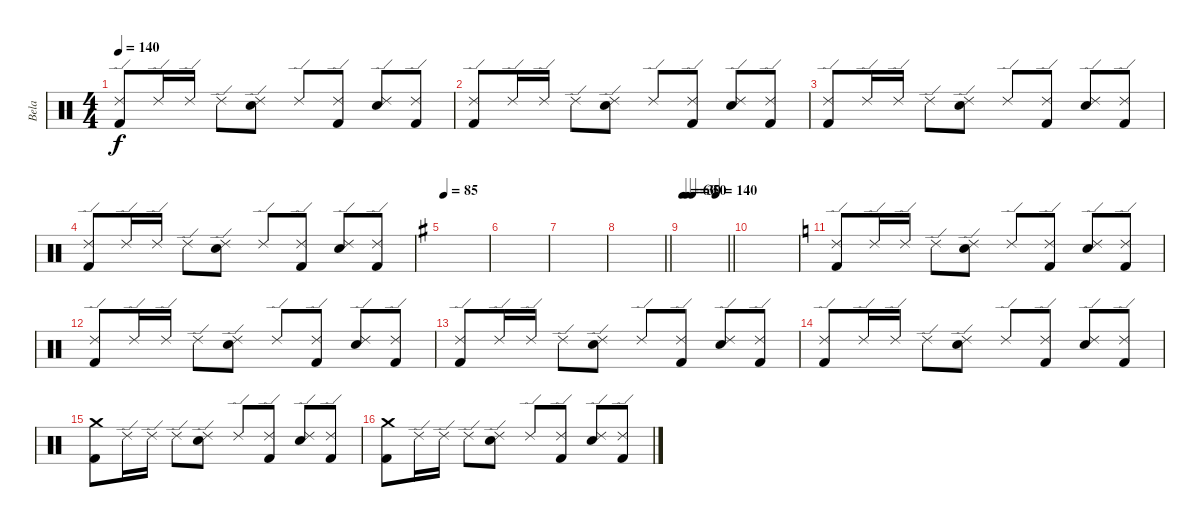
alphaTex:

\track ("Bela" "Bela") {instrument percussion}
\staff {score}
\articulation defaults
\ts (4 4)
\tempo 140
\clef neutral
\ks c
("Ride (edge) 2" "Kick (hit) 2").8{dy f} "Ride (edge) 2".16 "Ride (edge) 2".16 "Ride (edge) 2".8 ("Ride (edge) 2" "Snare (hit) 2").8 "Ride (edge) 2".8 ("Ride (edge) 2" "Kick (hit) 2").8 ("Ride (edge) 2" "Snare (hit) 2").8 ("Ride (edge) 2" "Kick (hit) 2").8 |
("Ride (edge) 2" "Kick (hit) 2").8 "Ride (edge) 2".16 "Ride (edge) 2".16 "Ride (edge) 2".8 ("Ride (edge) 2" "Snare (hit) 2").8 "Ride (edge) 2".8 ("Ride (edge) 2" "Kick (hit) 2").8 ("Ride (edge) 2" "Snare (hit) 2").8 ("Ride (edge) 2" "Kick (hit) 2").8 |
("Ride (edge) 2" "Kick (hit) 2").8 "Ride (edge) 2".16 "Ride (edge) 2".16 "Ride (edge) 2".8 ("Ride (edge) 2" "Snare (hit) 2").8 "Ride (edge) 2".8 ("Ride (edge) 2" "Kick (hit) 2").8 ("Ride (edge) 2" "Snare (hit) 2").8 ("Ride (edge) 2" "Kick (hit) 2").8 |
("Ride (edge) 2" "Kick (hit) 2").8 "Ride (edge) 2".16 "Ride (edge) 2".16 "Ride (edge) 2".8 ("Ride (edge) 2" "Snare (hit) 2").8 "Ride (edge) 2".8 ("Ride (edge) 2" "Kick (hit) 2").8 ("Ride (edge) 2" "Snare (hit) 2").8 ("Ride (edge) 2" "Kick (hit) 2").8 |
\tempo 70
\tempo 85
\ks g
|
|
|
\barLineRight lightlight
|
\tempo 60
\tempo (30 0.09375)
\tempo (50 0.21875)
\tempo (140 0.75)
\barLineRight lightlight
|
|
\ks c
("Ride (edge) 2" "Kick (hit) 2").8 "Ride (edge) 2".16 "Ride (edge) 2".16 "Ride (edge) 2".8 ("Ride (edge) 2" "Snare (hit) 2").8 "Ride (edge) 2".8 ("Ride (edge) 2" "Kick (hit) 2").8 ("Ride (edge) 2" "Snare (hit) 2").8 ("Ride (edge) 2" "Kick (hit) 2").8 |
("Ride (edge) 2" "Kick (hit) 2").8 "Ride (edge) 2".16 "Ride (edge) 2".16 "Ride (edge) 2".8 ("Ride (edge) 2" "Snare (hit) 2").8 "Ride (edge) 2".8 ("Ride (edge) 2" "Kick (hit) 2").8 ("Ride (edge) 2" "Snare (hit) 2").8 ("Ride (edge) 2" "Kick (hit) 2").8 |
("Ride (edge) 2" "Kick (hit) 2").8 "Ride (edge) 2".16 "Ride (edge) 2".16 "Ride (edge) 2".8 ("Ride (edge) 2" "Snare (hit) 2").8 "Ride (edge) 2".8 ("Ride (edge) 2" "Kick (hit) 2").8 ("Ride (edge) 2" "Snare (hit) 2").8 ("Ride (edge) 2" "Kick (hit) 2").8 |
("Ride (edge) 2" "Kick (hit) 2").8 "Ride (edge) 2".16 "Ride (edge) 2".16 "Ride (edge) 2".8 ("Ride (edge) 2" "Snare (hit) 2").8 "Ride (edge) 2".8 ("Ride (edge) 2" "Kick (hit) 2").8 ("Ride (edge) 2" "Snare (hit) 2").8 ("Ride (edge) 2" "Kick (hit) 2").8 |
("Crash medium (hit)" "Kick (hit) 2").8 "Ride (edge) 2".16 "Ride (edge) 2".16 "Ride (edge) 2".8 ("Ride (edge) 2" "Snare (hit) 2").8 "Ride (edge) 2".8 ("Ride (edge) 2" "Kick (hit) 2").8 ("Ride (edge) 2" "Snare (hit) 2").8 ("Ride (edge) 2" "Kick (hit) 2").8 |
("Crash medium (hit)" "Kick (hit) 2").8 "Ride (edge) 2".16 "Ride (edge) 2".16 "Ride (edge) 2".8 ("Ride (edge) 2" "Snare (hit) 2").8 "Ride (edge) 2".8 ("Ride (edge) 2" "Kick (hit) 2").8 ("Ride (edge) 2" "Snare (hit) 2").8 ("Ride (edge) 2" "Kick (hit) 2").8
